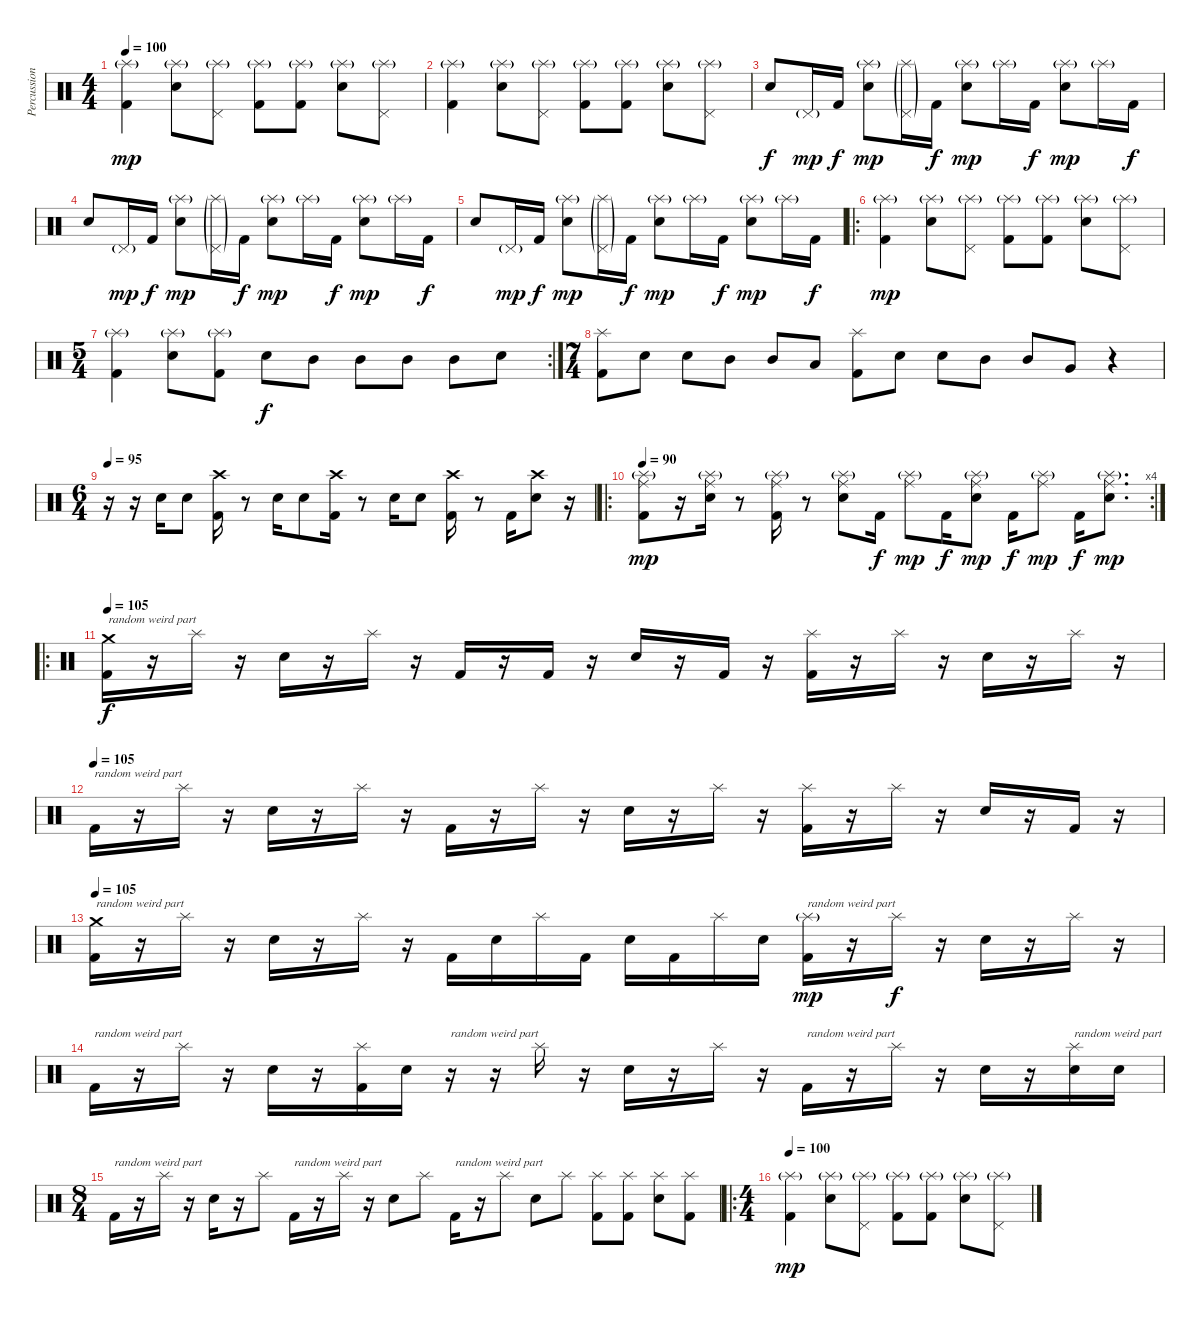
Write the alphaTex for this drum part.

\track ("Percussion" "Percussion") {instrument percussion}
\staff {score}
\articulation defaults
\ts (4 4)
\tempo 100
\clef neutral
\ks c
("Splash (hit)"{g} "Kick (hit) 2").4{dy mp} ("Splash (hit)"{g} "Electric Snare (hit)").8 ("Splash (hit)"{g} "Pedal Hi-Hat (hit)").8 ("Splash (hit)"{g} "Kick (hit) 2").8 ("Splash (hit)"{g} "Kick (hit) 2").8 ("Splash (hit)"{g} "Electric Snare (hit)").8 ("Splash (hit)"{g} "Pedal Hi-Hat (hit)").8 |
("Splash (hit)"{g} "Kick (hit) 2").4 ("Splash (hit)"{g} "Electric Snare (hit)").8 ("Splash (hit)"{g} "Pedal Hi-Hat (hit)").8 ("Splash (hit)"{g} "Kick (hit) 2").8 ("Splash (hit)"{g} "Kick (hit) 2").8 ("Splash (hit)"{g} "Electric Snare (hit)").8 ("Splash (hit)"{g} "Pedal Hi-Hat (hit)").8 |
"Electric Snare (hit)".8{dy f} "Pedal Hi-Hat (hit)"{g}.16{dy mp} "Kick (hit) 2".16{dy f} ("Splash (hit)"{g} "Electric Snare (hit)").8{dy mp} ("Splash (hit)"{g} "Pedal Hi-Hat (hit)"{g}).16 "Kick (hit) 2".16{dy f} ("Splash (hit)"{g} "Electric Snare (hit)").8{dy mp} "Splash (hit)"{g}.16 "Kick (hit) 2".16{dy f} ("Splash (hit)"{g} "Electric Snare (hit)").8{dy mp} "Splash (hit)"{g}.16 "Kick (hit) 2".16{dy f} |
"Electric Snare (hit)".8 "Pedal Hi-Hat (hit)"{g}.16{dy mp} "Kick (hit) 2".16{dy f} ("Splash (hit)"{g} "Electric Snare (hit)").8{dy mp} ("Splash (hit)"{g} "Pedal Hi-Hat (hit)"{g}).16 "Kick (hit) 2".16{dy f} ("Splash (hit)"{g} "Electric Snare (hit)").8{dy mp} "Splash (hit)"{g}.16 "Kick (hit) 2".16{dy f} ("Splash (hit)"{g} "Electric Snare (hit)").8{dy mp} "Splash (hit)"{g}.16 "Kick (hit) 2".16{dy f} |
"Electric Snare (hit)".8 "Pedal Hi-Hat (hit)"{g}.16{dy mp} "Kick (hit) 2".16{dy f} ("Splash (hit)"{g} "Electric Snare (hit)").8{dy mp} ("Splash (hit)"{g} "Pedal Hi-Hat (hit)"{g}).16 "Kick (hit) 2".16{dy f} ("Splash (hit)"{g} "Electric Snare (hit)").8{dy mp} "Splash (hit)"{g}.16 "Kick (hit) 2".16{dy f} ("Splash (hit)"{g} "Electric Snare (hit)").8{dy mp} "Splash (hit)"{g}.16 "Kick (hit) 2".16{dy f} |
\ro
("Splash (hit)"{g} "Kick (hit) 2").4{dy mp} ("Splash (hit)"{g} "Electric Snare (hit)").8 ("Splash (hit)"{g} "Pedal Hi-Hat (hit)").8 ("Splash (hit)"{g} "Kick (hit) 2").8 ("Splash (hit)"{g} "Kick (hit) 2").8 ("Splash (hit)"{g} "Electric Snare (hit)").8 ("Splash (hit)"{g} "Pedal Hi-Hat (hit)").8 |
\rc 2
\ts (5 4)
("Splash (hit)"{g} "Kick (hit) 2").4 ("Splash (hit)"{g} "Electric Snare (hit)").8 ("Splash (hit)"{g} "Kick (hit) 2").8 "Electric Snare (hit)".8{dy f} "Mid Tom (hit)".8 "Mid Tom (hit)".8 "Mid Tom (hit)".8 "Mid Tom (hit)".8 "Electric Snare (hit)".8 |
\ts (7 4)
("Splash (hit)" "Kick (hit) 2").8 "Electric Snare (hit)".8 "Electric Snare (hit)".8 "Mid Tom (hit)".8 "Mid Tom (hit)".8 "Low Tom (hit)".8 ("Splash (hit)" "Kick (hit) 2").8 "Electric Snare (hit)".8 "Electric Snare (hit)".8 "Mid Tom (hit)".8 "Mid Tom (hit)".8 "Very Low Tom (hit)".8 r.4 |
\ts (6 4)
\tempo 95
r.16 r.16 "Electric Snare (hit)".16 "Electric Snare (hit)".8 ("Crash high (hit)" "Kick (hit) 2").16 r.8 "Electric Snare (hit)".16 "Electric Snare (hit)".8 ("Crash high (hit)" "Kick (hit) 2").16 r.8 "Electric Snare (hit)".16 "Electric Snare (hit)".8 ("Crash high (hit)" "Kick (hit) 2").16 r.8 "Kick (hit) 2".16 ("Crash high (hit)" "Electric Snare (hit)").8 r.16 |
\ro
\rc 4
\tempo 95
\tempo 90
("Splash (hit)"{g} "Ride (middle)" "Kick (hit) 2").8{dy mp} r.16 ("Splash (hit)"{g} "Ride (middle)" "Electric Snare (hit)").16 r.8 ("Splash (hit)"{g} "Ride (middle)" "Kick (hit) 2").16 r.8 ("Splash (hit)"{g} "Ride (middle)" "Electric Snare (hit)").8 "Kick (hit) 2".16{dy f} ("Splash (hit)"{g} "Ride (middle)").8{dy mp} "Kick (hit) 2".16{dy f} ("Splash (hit)"{g} "Ride (middle)" "Electric Snare (hit)").8{dy mp} "Kick (hit) 2".16{dy f} ("Splash (hit)"{g} "Ride (middle)").8{dy mp} "Kick (hit) 2".16{dy f} ("Splash (hit)"{g} "Ride (middle)" "Electric Snare (hit)").8{d dy mp} |
\ro
\tempo 105
("Crash medium (hit)" "Kick (hit) 2").16{txt "random weird part" dy f} r.16 "Splash (hit)".16 r.16 "Electric Snare (hit)".16 r.16 "Splash (hit)".16 r.16 "Kick (hit) 2".16 r.16 "Kick (hit) 2".16 r.16 "Electric Snare (hit)".16 r.16 "Kick (hit) 2".16 r.16 ("Splash (hit)" "Kick (hit) 2").16 r.16 "Splash (hit)".16 r.16 "Electric Snare (hit)".16 r.16 "Splash (hit)".16 r.16 |
\tempo (105)
"Kick (hit) 2".16{txt "random weird part"} r.16 "Splash (hit)".16 r.16 "Electric Snare (hit)".16 r.16 "Splash (hit)".16 r.16 "Kick (hit) 2".16 r.16 "Splash (hit)".16 r.16 "Electric Snare (hit)".16 r.16 "Splash (hit)".16 r.16 ("Splash (hit)" "Kick (hit) 2").16 r.16 "Splash (hit)".16 r.16 "Electric Snare (hit)".16 r.16 "Kick (hit) 2".16 r.16 |
\tempo 105
("Crash medium (hit)" "Kick (hit) 2").16{txt "random weird part"} r.16 "Splash (hit)".16 r.16 "Electric Snare (hit)".16 r.16 "Splash (hit)".16 r.16 "Kick (hit) 2".16 "Electric Snare (hit)".16 "Splash (hit)".16 "Kick (hit) 2".16 "Electric Snare (hit)".16 "Kick (hit) 2".16 "Splash (hit)".16 "Electric Snare (hit)".16 ("Splash (hit)"{g} "Kick (hit) 2").16{txt "random weird part" dy mp} r.16 "Splash (hit)".16{dy f} r.16 "Electric Snare (hit)".16 r.16 "Splash (hit)".16 r.16 |
"Kick (hit) 2".16{txt "random weird part"} r.16 "Splash (hit)".16 r.16 "Electric Snare (hit)".16 r.16 ("Splash (hit)" "Kick (hit) 2").16 "Electric Snare (hit)".16 r.16{txt "random weird part"} r.16 "Splash (hit)".16 r.16 "Electric Snare (hit)".16 r.16 "Splash (hit)".16 r.16 "Kick (hit) 2".16{txt "random weird part"} r.16 "Splash (hit)".16 r.16 "Electric Snare (hit)".16 r.16 ("Electric Snare (hit)" "Splash (hit)").16{txt "random weird part"} "Electric Snare (hit)".16 |
\ts (8 4)
"Kick (hit) 2".16{txt "random weird part"} r.16 "Splash (hit)".16 r.16 "Electric Snare (hit)".16 r.16 "Splash (hit)".8 "Kick (hit) 2".16{txt "random weird part"} r.16 "Splash (hit)".16 r.16 "Electric Snare (hit)".8 "Splash (hit)".8 "Kick (hit) 2".16{txt "random weird part"} r.16 "Splash (hit)".8 "Electric Snare (hit)".8 "Splash (hit)".8 ("Splash (hit)" "Kick (hit) 2").8 ("Splash (hit)" "Kick (hit) 2").8 ("Splash (hit)" "Electric Snare (hit)").8 ("Splash (hit)" "Kick (hit) 2").8 |
\ro
\ts (4 4)
\tempo 100
("Splash (hit)"{g} "Kick (hit) 2").4{dy mp} ("Splash (hit)"{g} "Electric Snare (hit)").8 ("Splash (hit)"{g} "Pedal Hi-Hat (hit)").8 ("Splash (hit)"{g} "Kick (hit) 2").8 ("Splash (hit)"{g} "Kick (hit) 2").8 ("Splash (hit)"{g} "Electric Snare (hit)").8 ("Splash (hit)"{g} "Pedal Hi-Hat (hit)").8
